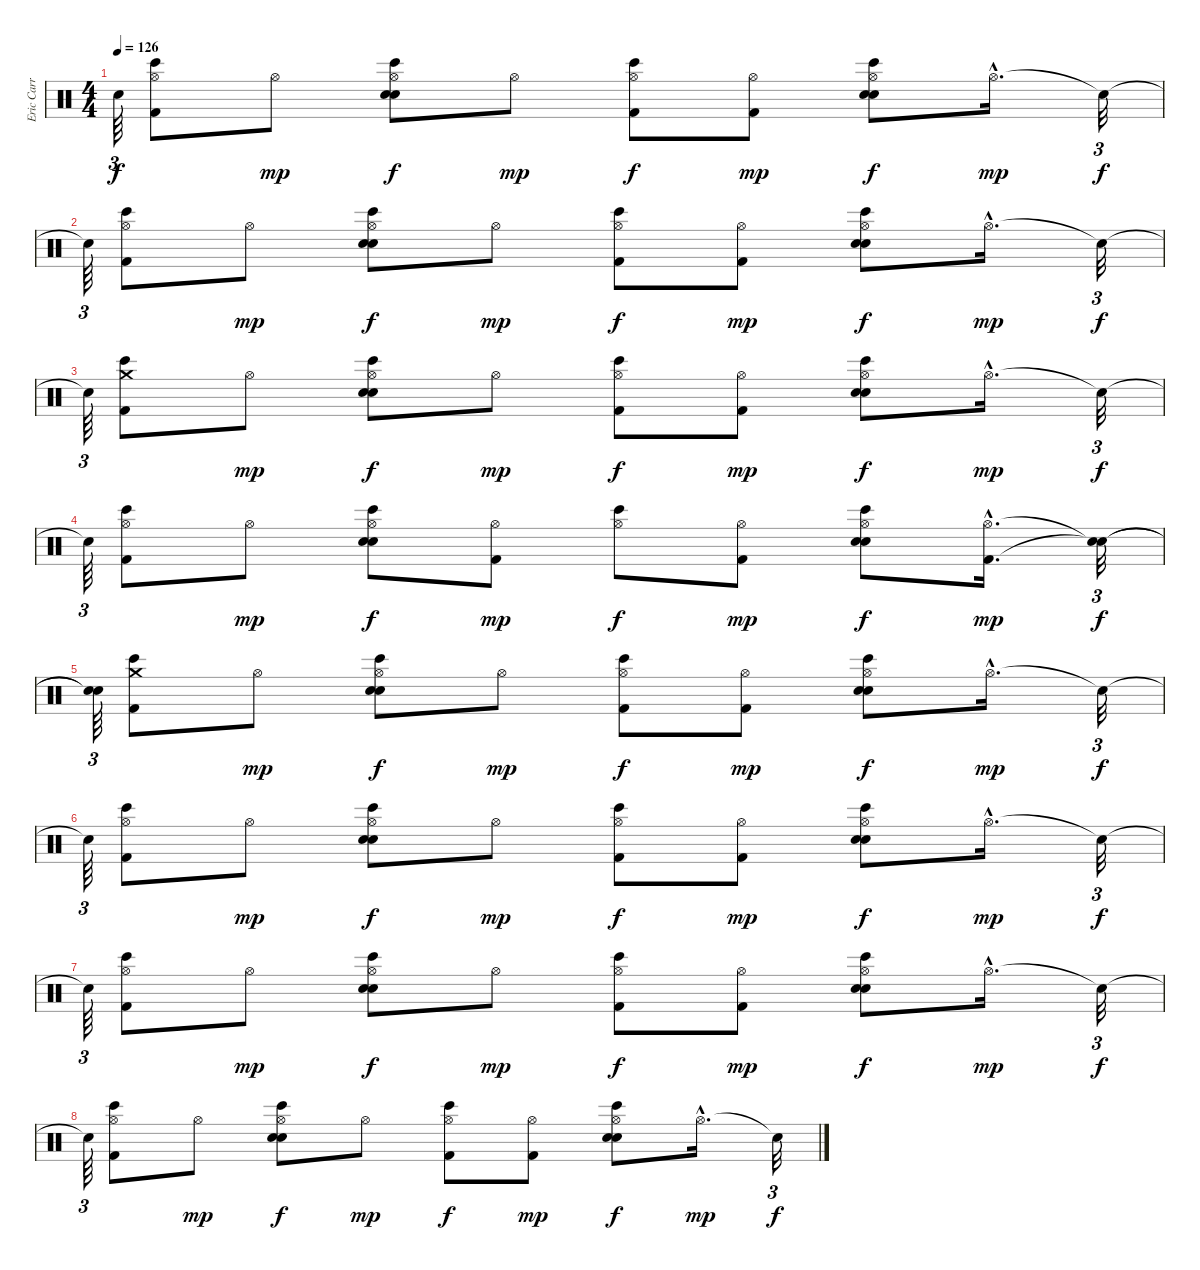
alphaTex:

\track ("Eric Carr" "Eric Carr") {instrument percussion}
\staff {score}
\articulation defaults
\ts (4 4)
\tempo 126
\clef neutral
\ks c "Snare (hit)"{t}.64{tu (3 2) dy f}
("Bongo High (hit)" "Hi-Hat (open)" "Kick (hit) 2").8 "Hi-Hat (open)".8{dy mp} ("Bongo High (hit)" "Hi-Hat (open)" "Snare (hit) 2" "Electric Snare (hit)").8{dy f} "Hi-Hat (open)".8{dy mp} ("Bongo High (hit)" "Kick (hit) 2" "Hi-Hat (open)").8{dy f} ("Kick (hit) 2" "Hi-Hat (open)").8{dy mp} ("Bongo High (hit)" "Electric Snare (hit)" "Snare (hit) 2" "Hi-Hat (open)").8{dy f} "Hi-Hat (open)"{hac}.16{d dy mp} "Snare (hit)"{t}.32{tu (3 2) dy f} |
"Snare (hit)"{t}.64{tu (3 2)} ("Bongo High (hit)" "Kick (hit) 2" "Hi-Hat (open)").8 "Hi-Hat (open)".8{dy mp} ("Bongo High (hit)" "Hi-Hat (open)" "Snare (hit) 2" "Electric Snare (hit)").8{dy f} "Hi-Hat (open)".8{dy mp} ("Bongo High (hit)" "Kick (hit) 2" "Hi-Hat (open)").8{dy f} ("Kick (hit) 2" "Hi-Hat (open)").8{dy mp} ("Bongo High (hit)" "Electric Snare (hit)" "Snare (hit) 2" "Hi-Hat (open)").8{dy f} "Hi-Hat (open)"{hac}.16{d dy mp} "Snare (hit)"{t}.32{tu (3 2) dy f} |
"Snare (hit)"{t}.64{tu (3 2)} ("Bongo High (hit)" "Crash medium (hit)" "Kick (hit) 2").8 "Hi-Hat (open)".8{dy mp} ("Bongo High (hit)" "Hi-Hat (open)" "Snare (hit) 2" "Electric Snare (hit)").8{dy f} "Hi-Hat (open)".8{dy mp} ("Bongo High (hit)" "Kick (hit) 2" "Hi-Hat (open)").8{dy f} ("Kick (hit) 2" "Hi-Hat (open)").8{dy mp} ("Bongo High (hit)" "Electric Snare (hit)" "Snare (hit) 2" "Hi-Hat (open)").8{dy f} "Hi-Hat (open)"{hac}.16{d dy mp} "Snare (hit)"{t}.32{tu (3 2) dy f} |
"Snare (hit)"{t}.64{tu (3 2)} ("Bongo High (hit)" "Kick (hit) 2" "Hi-Hat (open)").8 "Hi-Hat (open)".8{dy mp} ("Bongo High (hit)" "Hi-Hat (open)" "Snare (hit) 2" "Electric Snare (hit)").8{dy f} ("Kick (hit) 2" "Hi-Hat (open)").8{dy mp} ("Bongo High (hit)" "Hi-Hat (open)").8{dy f} ("Kick (hit) 2" "Hi-Hat (open)").8{dy mp} ("Bongo High (hit)" "Electric Snare (hit)" "Snare (hit) 2" "Hi-Hat (open)").8{dy f} ("Kick (hit) 2"{hac} "Hi-Hat (open)"{hac}).16{d dy mp} ("Snare (hit)"{t} "Snare (hit)"{t}).32{tu (3 2) dy f} |
("Snare (hit)"{t} "Snare (hit)"{t}).64{tu (3 2)} ("Bongo High (hit)" "Crash medium (hit)" "Kick (hit) 2").8 "Hi-Hat (open)".8{dy mp} ("Bongo High (hit)" "Hi-Hat (open)" "Snare (hit) 2" "Electric Snare (hit)").8{dy f} "Hi-Hat (open)".8{dy mp} ("Bongo High (hit)" "Kick (hit) 2" "Hi-Hat (open)").8{dy f} ("Kick (hit) 2" "Hi-Hat (open)").8{dy mp} ("Bongo High (hit)" "Electric Snare (hit)" "Snare (hit) 2" "Hi-Hat (open)").8{dy f} "Hi-Hat (open)"{hac}.16{d dy mp} "Snare (hit)"{t}.32{tu (3 2) dy f} |
"Snare (hit)"{t}.64{tu (3 2)} ("Bongo High (hit)" "Kick (hit) 2" "Hi-Hat (open)").8 "Hi-Hat (open)".8{dy mp} ("Bongo High (hit)" "Hi-Hat (open)" "Snare (hit) 2" "Electric Snare (hit)").8{dy f} "Hi-Hat (open)".8{dy mp} ("Bongo High (hit)" "Kick (hit) 2" "Hi-Hat (open)").8{dy f} ("Kick (hit) 2" "Hi-Hat (open)").8{dy mp} ("Bongo High (hit)" "Electric Snare (hit)" "Snare (hit) 2" "Hi-Hat (open)").8{dy f} "Hi-Hat (open)"{hac}.16{d dy mp} "Snare (hit)"{t}.32{tu (3 2) dy f} |
"Snare (hit)"{t}.64{tu (3 2)} ("Bongo High (hit)" "Hi-Hat (open)" "Kick (hit) 2").8 "Hi-Hat (open)".8{dy mp} ("Bongo High (hit)" "Hi-Hat (open)" "Snare (hit) 2" "Electric Snare (hit)").8{dy f} "Hi-Hat (open)".8{dy mp} ("Bongo High (hit)" "Kick (hit) 2" "Hi-Hat (open)").8{dy f} ("Kick (hit) 2" "Hi-Hat (open)").8{dy mp} ("Bongo High (hit)" "Electric Snare (hit)" "Snare (hit) 2" "Hi-Hat (open)").8{dy f} "Hi-Hat (open)"{hac}.16{d dy mp} "Snare (hit)"{t}.32{tu (3 2) dy f} |
"Snare (hit)"{t}.64{tu (3 2)} ("Bongo High (hit)" "Kick (hit) 2" "Hi-Hat (open)").8 "Hi-Hat (open)".8{dy mp} ("Bongo High (hit)" "Hi-Hat (open)" "Snare (hit) 2" "Electric Snare (hit)").8{dy f} "Hi-Hat (open)".8{dy mp} ("Bongo High (hit)" "Kick (hit) 2" "Hi-Hat (open)").8{dy f} ("Kick (hit) 2" "Hi-Hat (open)").8{dy mp} ("Bongo High (hit)" "Electric Snare (hit)" "Snare (hit) 2" "Hi-Hat (open)").8{dy f} "Hi-Hat (open)"{hac}.16{d dy mp} "Snare (hit)"{t}.32{tu (3 2) dy f}
